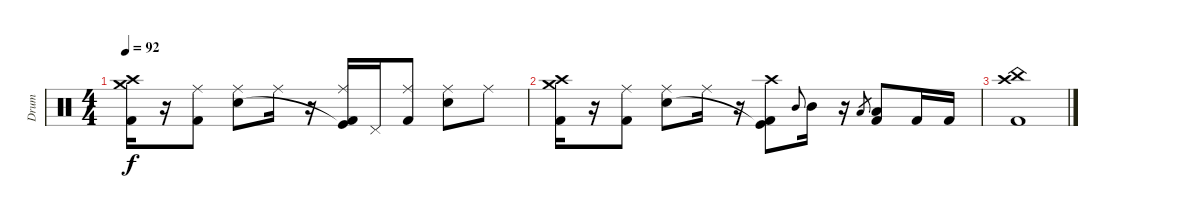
\track ("Drum" "Drum") {instrument percussion}
\staff {score}
\articulation defaults
\ts (4 4)
\tempo 92
\clef neutral
\ks c
("Crash high (hit)" "Crash medium (hit)" "Kick (hit) 2").16{dy f} r.16 ("Ride (middle)" "Kick (hit) 2").8 ("Ride (middle)" "Snare (hit) 2").8 "Ride (middle)".16 r.16 ("Ride (middle)" "Kick (hit)"{t} "Kick (hit) 2").16 "Pedal Hi-Hat (hit)".16 ("Ride (middle)" "Kick (hit) 2").8 ("Ride (middle)" "Snare (hit) 2").8 "Ride (middle)".8 |
("Crash high (hit)" "Crash medium (hit)" "Kick (hit) 2").16 r.16 ("Ride (middle)" "Kick (hit) 2").8 ("Ride (middle)" "Snare (hit) 2").8 "Ride (middle)".16 r.16 ("Crash high (hit)" "Kick (hit)"{t} "Kick (hit) 2").8 "Mid Tom (hit)".8{gr onbeat} "Mid Tom (hit)".16 r.16 "Low Floor Tom (hit)".8{gr} ("Low Floor Tom (hit)" "Kick (hit) 2").8 "Kick (hit) 2".16 "Kick (hit) 2".16 |
("Crash high (hit)" "China (hit)" "Kick (hit) 2").1
